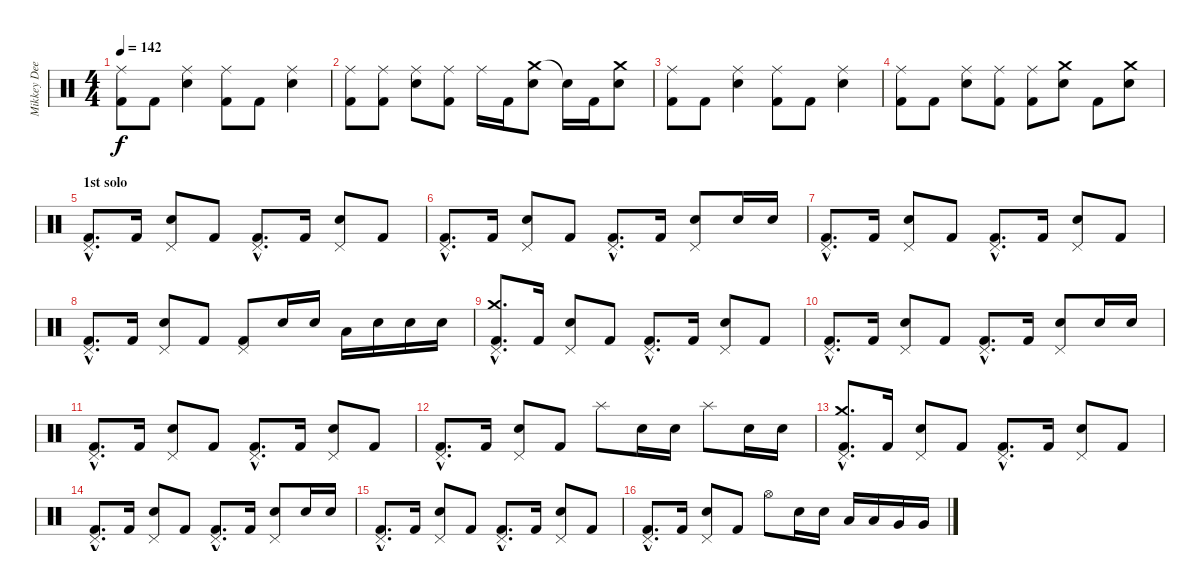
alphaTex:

\track ("Mikkey Dee" "Mikkey Dee") {instrument percussion}
\staff {score}
\articulation defaults
\ts (4 4)
\tempo 142
\clef neutral
\ks c
("Kick (hit) 2" "Ride (middle)").8{dy f} "Kick (hit) 2".8 ("Ride (middle)" "Snare (hit) 2").4 ("Kick (hit) 2" "Ride (middle)").8 "Kick (hit) 2".8 ("Ride (middle)" "Snare (hit) 2").4 |
("Kick (hit) 2" "Ride (middle)").8 ("Kick (hit) 2" "Ride (middle)").8 ("Ride (middle)" "Snare (hit) 2").8 ("Kick (hit) 2" "Ride (middle)").8 "Ride (middle)".16 "Kick (hit) 2".16 ("Crash medium (hit)" "Snare (hit) 2").8 "Snare (hit)"{t}.16 "Kick (hit) 2".16 ("Crash medium (hit)" "Snare (hit) 2").8 |
("Kick (hit) 2" "Ride (middle)").8 "Kick (hit) 2".8 ("Ride (middle)" "Snare (hit) 2").4 ("Kick (hit) 2" "Ride (middle)").8 "Kick (hit) 2".8 ("Ride (middle)" "Snare (hit) 2").4 |
("Kick (hit) 2" "Ride (middle)").8 "Kick (hit) 2".8 ("Ride (middle)" "Snare (hit) 2").8 ("Kick (hit) 2" "Ride (middle)").8 ("Kick (hit) 2" "Ride (middle)").8 ("Crash medium (hit)" "Snare (hit) 2").8 "Kick (hit) 2".8 ("Crash medium (hit)" "Snare (hit) 2").8 |
\section ("" "1st solo")
("Kick (hit) 2"{hac} "Pedal Hi-Hat (hit)"{hac}).8{d} "Kick (hit) 2".16 ("Pedal Hi-Hat (hit)" "Snare (hit) 2").8 "Kick (hit) 2".8 ("Kick (hit) 2"{hac} "Pedal Hi-Hat (hit)"{hac}).8{d} "Kick (hit) 2".16 ("Pedal Hi-Hat (hit)" "Snare (hit) 2").8 "Kick (hit) 2".8 |
("Kick (hit) 2"{hac} "Pedal Hi-Hat (hit)"{hac}).8{d} "Kick (hit) 2".16 ("Pedal Hi-Hat (hit)" "Snare (hit) 2").8 "Kick (hit) 2".8 ("Kick (hit) 2"{hac} "Pedal Hi-Hat (hit)"{hac}).8{d} "Kick (hit) 2".16 ("Pedal Hi-Hat (hit)" "Snare (hit) 2").8 "Snare (hit) 2".16 "Snare (hit) 2".16 |
("Kick (hit) 2"{hac} "Pedal Hi-Hat (hit)"{hac}).8{d} "Kick (hit) 2".16 ("Pedal Hi-Hat (hit)" "Snare (hit) 2").8 "Kick (hit) 2".8 ("Kick (hit) 2"{hac} "Pedal Hi-Hat (hit)"{hac}).8{d} "Kick (hit) 2".16 ("Pedal Hi-Hat (hit)" "Snare (hit) 2").8 "Kick (hit) 2".8 |
("Kick (hit) 2"{hac} "Pedal Hi-Hat (hit)"{hac}).8{d} "Kick (hit) 2".16 ("Pedal Hi-Hat (hit)" "Snare (hit) 2").8 "Kick (hit) 2".8 ("Kick (hit) 2" "Pedal Hi-Hat (hit)").8 "Snare (hit) 2".16 "Snare (hit) 2".16 "Low Tom (hit)".16 "Snare (hit) 2".16 "Snare (hit) 2".16 "Snare (hit) 2".16 |
("Kick (hit) 2"{hac} "Pedal Hi-Hat (hit)"{hac} "Crash medium (hit)"{hac}).8{d} "Kick (hit) 2".16 ("Pedal Hi-Hat (hit)" "Snare (hit) 2").8 "Kick (hit) 2".8 ("Kick (hit) 2"{hac} "Pedal Hi-Hat (hit)"{hac}).8{d} "Kick (hit) 2".16 ("Pedal Hi-Hat (hit)" "Snare (hit) 2").8 "Kick (hit) 2".8 |
("Kick (hit) 2"{hac} "Pedal Hi-Hat (hit)"{hac}).8{d} "Kick (hit) 2".16 ("Pedal Hi-Hat (hit)" "Snare (hit) 2").8 "Kick (hit) 2".8 ("Kick (hit) 2"{hac} "Pedal Hi-Hat (hit)"{hac}).8{d} "Kick (hit) 2".16 ("Pedal Hi-Hat (hit)" "Snare (hit) 2").8 "Snare (hit) 2".16 "Snare (hit) 2".16 |
("Kick (hit) 2"{hac} "Pedal Hi-Hat (hit)"{hac}).8{d} "Kick (hit) 2".16 ("Pedal Hi-Hat (hit)" "Snare (hit) 2").8 "Kick (hit) 2".8 ("Kick (hit) 2"{hac} "Pedal Hi-Hat (hit)"{hac}).8{d} "Kick (hit) 2".16 ("Pedal Hi-Hat (hit)" "Snare (hit) 2").8 "Kick (hit) 2".8 |
("Kick (hit) 2"{hac} "Pedal Hi-Hat (hit)"{hac}).8{d} "Kick (hit) 2".16 ("Pedal Hi-Hat (hit)" "Snare (hit) 2").8 "Kick (hit) 2".8 "Splash (hit)".8 "Snare (hit) 2".16 "Snare (hit) 2".16 "Splash (hit)".8 "Snare (hit) 2".16 "Snare (hit) 2".16 |
("Kick (hit) 2"{hac} "Pedal Hi-Hat (hit)"{hac} "Crash medium (hit)"{hac}).8{d} "Kick (hit) 2".16 ("Pedal Hi-Hat (hit)" "Snare (hit) 2").8 "Kick (hit) 2".8 ("Kick (hit) 2"{hac} "Pedal Hi-Hat (hit)"{hac}).8{d} "Kick (hit) 2".16 ("Pedal Hi-Hat (hit)" "Snare (hit) 2").8 "Kick (hit) 2".8 |
("Kick (hit) 2"{hac} "Pedal Hi-Hat (hit)"{hac}).8{d} "Kick (hit) 2".16 ("Pedal Hi-Hat (hit)" "Snare (hit) 2").8 "Kick (hit) 2".8 ("Kick (hit) 2"{hac} "Pedal Hi-Hat (hit)"{hac}).8{d} "Kick (hit) 2".16 ("Pedal Hi-Hat (hit)" "Snare (hit) 2").8 "Snare (hit) 2".16 "Snare (hit) 2".16 |
("Kick (hit) 2"{hac} "Pedal Hi-Hat (hit)"{hac}).8{d} "Kick (hit) 2".16 ("Pedal Hi-Hat (hit)" "Snare (hit) 2").8 "Kick (hit) 2".8 ("Kick (hit) 2"{hac} "Pedal Hi-Hat (hit)"{hac}).8{d} "Kick (hit) 2".16 ("Pedal Hi-Hat (hit)" "Snare (hit) 2").8 "Kick (hit) 2".8 |
("Kick (hit) 2"{hac} "Pedal Hi-Hat (hit)"{hac}).8{d} "Kick (hit) 2".16 ("Pedal Hi-Hat (hit)" "Snare (hit) 2").8 "Kick (hit) 2".8 "Hi-Hat (open)".8 "Snare (hit) 2".16 "Snare (hit) 2".16 "Low Tom (hit)".16 "Low Tom (hit)".16 "Very Low Tom (hit)".16 "Very Low Tom (hit)".16
